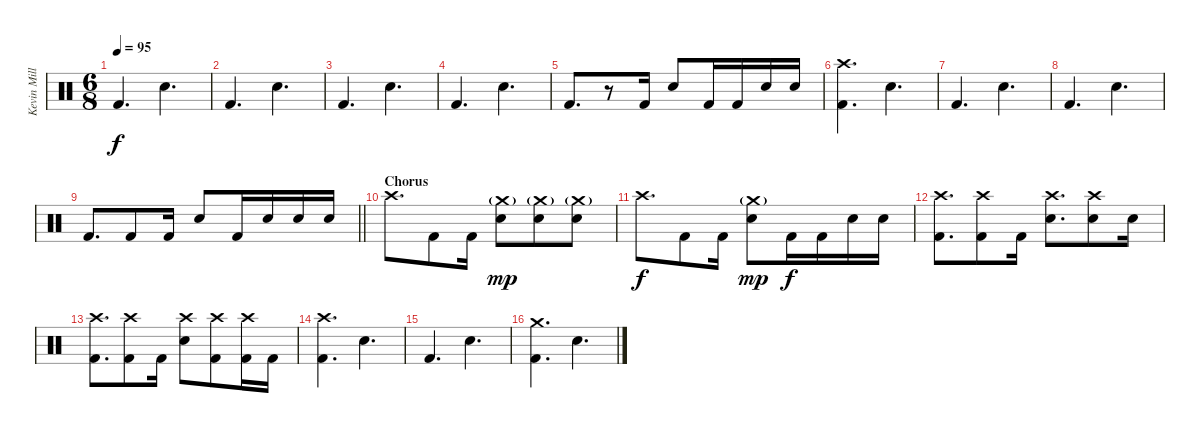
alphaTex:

\track ("Kevin Miller (Drums)" "Kevin Mill") {instrument percussion}
\staff {score}
\articulation defaults
\ts (6 8)
\tempo 95
\clef neutral
\ks c "Kick (hit) 2".4{d dy f} "Electric Snare (hit)".4{d}
|
"Kick (hit) 2".4{d} "Electric Snare (hit)".4{d} |
"Kick (hit) 2".4{d} "Electric Snare (hit)".4{d} |
"Kick (hit) 2".4{d} "Electric Snare (hit)".4{d} |
"Kick (hit) 2".8{d} r.8 "Kick (hit) 2".16 "Electric Snare (hit)".8 "Kick (hit) 2".16 "Kick (hit) 2".16 "Electric Snare (hit)".16 "Electric Snare (hit)".16 |
("Crash high (hit)" "Kick (hit) 2").4{d} "Electric Snare (hit)".4{d} |
"Kick (hit) 2".4{d} "Electric Snare (hit)".4{d} |
"Kick (hit) 2".4{d} "Electric Snare (hit)".4{d} |
\barLineRight lightlight "Kick (hit) 2".8{d} "Kick (hit) 2".8 "Kick (hit) 2".16 "Electric Snare (hit)".8 "Kick (hit) 2".16 "Electric Snare (hit)".16 "Electric Snare (hit)".16 "Electric Snare (hit)".16
|
\section ("" "Chorus")
"Crash high (hit)".8{d} "Kick (hit) 2".8 "Kick (hit) 2".16 ("Electric Snare (hit)" "Crash medium (hit)"{g}).8{dy mp} ("Electric Snare (hit)" "Crash medium (hit)"{g}).8 ("Electric Snare (hit)" "Crash medium (hit)"{g}).8 |
"Crash high (hit)".8{d dy f} "Kick (hit) 2".8 "Kick (hit) 2".16 ("Electric Snare (hit)" "Crash medium (hit)"{g}).8{dy mp} "Kick (hit) 2".16{dy f} "Kick (hit) 2".16 "Electric Snare (hit)".16 "Electric Snare (hit)".16 |
("Kick (hit) 2" "Crash high (hit)").8{d} ("Kick (hit) 2" "Crash high (hit)").8 "Kick (hit) 2".16 ("Electric Snare (hit)" "Crash high (hit)").8{d} ("Electric Snare (hit)" "Crash high (hit)").8 "Electric Snare (hit)".16 |
("Kick (hit) 2" "Crash high (hit)").8{d} ("Kick (hit) 2" "Crash high (hit)").8 "Kick (hit) 2".16 ("Electric Snare (hit)" "Crash high (hit)").8 ("Kick (hit) 2" "Crash high (hit)").8 ("Kick (hit) 2" "Crash high (hit)").16 "Kick (hit) 2".16 |
("Crash high (hit)" "Kick (hit) 2").4{d} "Electric Snare (hit)".4{d} |
"Kick (hit) 2".4{d} "Electric Snare (hit)".4{d} |
("Crash medium (hit)" "Kick (hit) 2").4{d} "Electric Snare (hit)".4{d}
